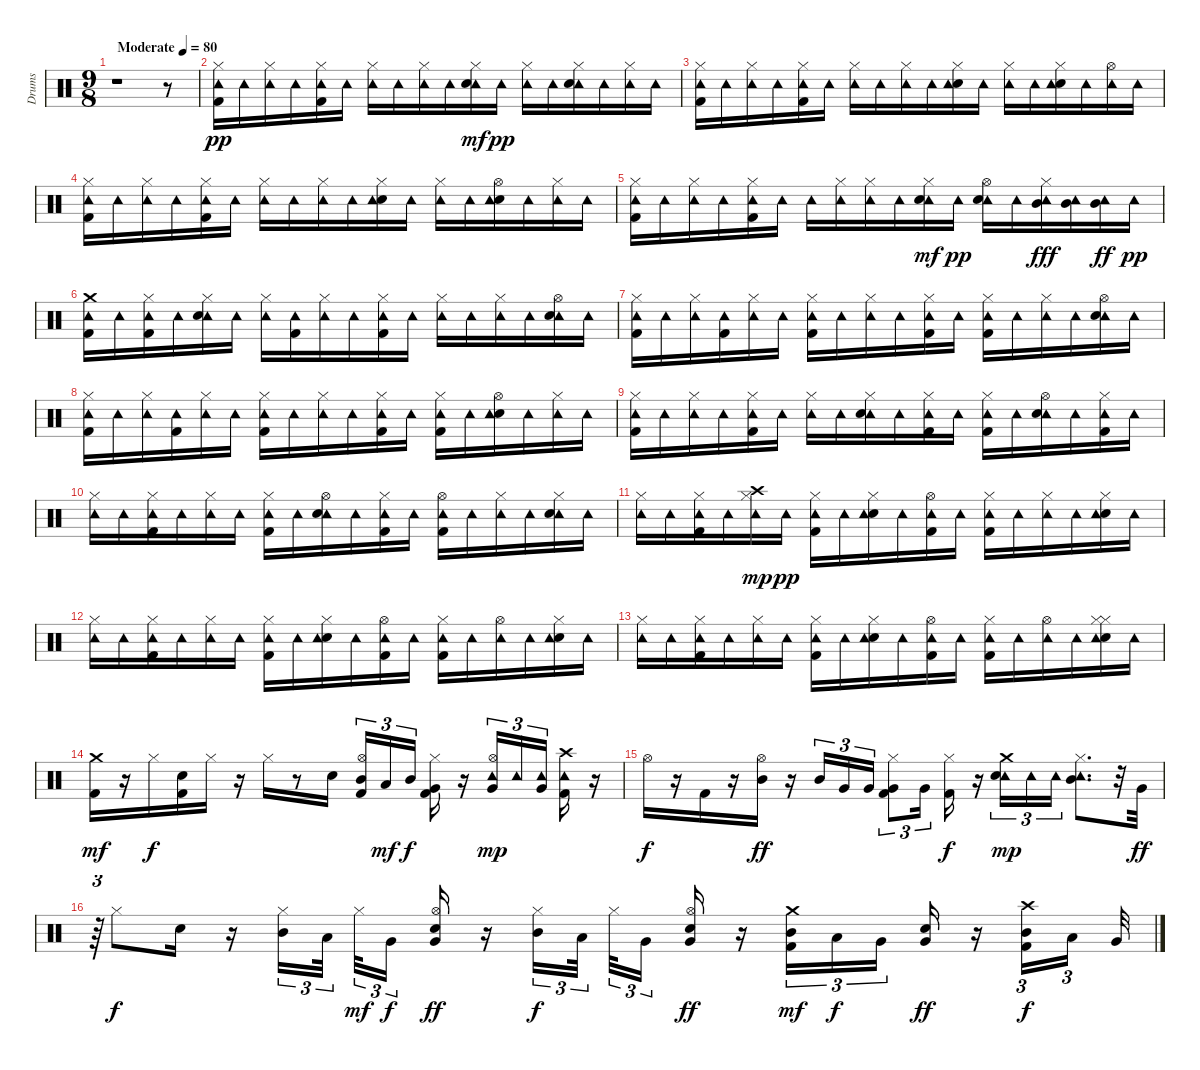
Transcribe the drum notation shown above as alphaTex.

\track ("Drums" "Drums") {instrument percussion}
\staff {score}
\articulation defaults
\ts (9 8)
\tempo (80 "Moderate")
\clef neutral
\ks c
r.1{dy pp} r.8 |
("Hi-Hat (closed)" "Kick (hit) 2" "Tambourine (hit)").16 "Tambourine (hit)".16 ("Hi-Hat (closed)" "Tambourine (hit)").16 "Tambourine (hit)".16 ("Hi-Hat (closed)" "Kick (hit) 2" "Tambourine (hit)").16 "Tambourine (hit)".16 ("Hi-Hat (closed)" "Tambourine (hit)").16 "Tambourine (hit)".16 ("Hi-Hat (closed)" "Tambourine (hit)").16 "Tambourine (hit)".16 ("Hi-Hat (closed)" "Tambourine (hit)" "Electric Snare (hit)").16{dy mf} "Tambourine (hit)".16{dy pp} ("Hi-Hat (closed)" "Tambourine (hit)").16 "Tambourine (hit)".16 ("Hi-Hat (closed)" "Tambourine (hit)" "Electric Snare (hit)").16 "Tambourine (hit)".16 ("Hi-Hat (closed)" "Tambourine (hit)").16 "Tambourine (hit)".16 |
("Hi-Hat (closed)" "Kick (hit) 2" "Tambourine (hit)").16 "Tambourine (hit)".16 ("Hi-Hat (closed)" "Tambourine (hit)").16 "Tambourine (hit)".16 ("Hi-Hat (closed)" "Kick (hit) 2" "Tambourine (hit)").16 "Tambourine (hit)".16 ("Hi-Hat (closed)" "Tambourine (hit)").16 "Tambourine (hit)".16 ("Hi-Hat (closed)" "Tambourine (hit)").16 "Tambourine (hit)".16 ("Hi-Hat (closed)" "Electric Snare (hit)" "Tambourine (hit)").16 "Tambourine (hit)".16 ("Hi-Hat (closed)" "Tambourine (hit)").16 "Tambourine (hit)".16 ("Hi-Hat (closed)" "Electric Snare (hit)" "Tambourine (hit)").16 "Tambourine (hit)".16 ("Hi-Hat (open)" "Tambourine (hit)").16 "Tambourine (hit)".16 |
("Hi-Hat (closed)" "Kick (hit) 2" "Tambourine (hit)").16 "Tambourine (hit)".16 ("Hi-Hat (closed)" "Tambourine (hit)").16 "Tambourine (hit)".16 ("Hi-Hat (closed)" "Kick (hit) 2" "Tambourine (hit)").16 "Tambourine (hit)".16 ("Hi-Hat (closed)" "Tambourine (hit)").16 "Tambourine (hit)".16 ("Hi-Hat (closed)" "Tambourine (hit)").16 "Tambourine (hit)".16 ("Hi-Hat (closed)" "Electric Snare (hit)" "Tambourine (hit)").16 "Tambourine (hit)".16 ("Hi-Hat (closed)" "Tambourine (hit)").16 "Tambourine (hit)".16 ("Hi-Hat (open)" "Electric Snare (hit)" "Tambourine (hit)").16 "Tambourine (hit)".16 ("Hi-Hat (closed)" "Tambourine (hit)").16 "Tambourine (hit)".16 |
("Hi-Hat (closed)" "Kick (hit) 2" "Tambourine (hit)").16 "Tambourine (hit)".16 ("Hi-Hat (closed)" "Tambourine (hit)").16 "Tambourine (hit)".16 ("Kick (hit) 2" "Hi-Hat (closed)" "Tambourine (hit)").16 "Tambourine (hit)".16 "Tambourine (hit)".16 ("Hi-Hat (closed)" "Tambourine (hit)").16 ("Hi-Hat (closed)" "Tambourine (hit)").16 "Tambourine (hit)".16 ("Hi-Hat (closed)" "Tambourine (hit)" "Electric Snare (hit)").16{dy mf} "Tambourine (hit)".16{dy pp} ("Hi-Hat (open)" "Tambourine (hit)" "Electric Snare (hit)").16 "Tambourine (hit)".16 ("Hi-Hat (closed)" "Tambourine (hit)" "Mid Tom (hit)").16{dy fff} ("Tambourine (hit)" "Mid Tom (hit)").16 ("Tambourine (hit)" "Mid Tom (hit)").16{dy ff} "Tambourine (hit)".16{dy pp} |
("Tambourine (hit)" "Kick (hit) 2" "Crash medium (hit)").16 "Tambourine (hit)".16 ("Tambourine (hit)" "Kick (hit) 2" "Hi-Hat (closed)").16 "Tambourine (hit)".16 ("Tambourine (hit)" "Hi-Hat (closed)" "Electric Snare (hit)").16 "Tambourine (hit)".16 ("Tambourine (hit)" "Hi-Hat (closed)").16 ("Tambourine (hit)" "Kick (hit) 2").16 ("Tambourine (hit)" "Hi-Hat (closed)").16 "Tambourine (hit)".16 ("Tambourine (hit)" "Kick (hit) 2" "Hi-Hat (closed)").16 "Tambourine (hit)".16 ("Tambourine (hit)" "Hi-Hat (closed)").16 "Tambourine (hit)".16 ("Tambourine (hit)" "Hi-Hat (closed)").16 "Tambourine (hit)".16 ("Tambourine (hit)" "Hi-Hat (open)" "Electric Snare (hit)").16 "Tambourine (hit)".16 |
("Kick (hit) 2" "Tambourine (hit)" "Hi-Hat (closed)").16 "Tambourine (hit)".16 ("Tambourine (hit)" "Hi-Hat (closed)").16 ("Kick (hit) 2" "Tambourine (hit)").16 ("Tambourine (hit)" "Hi-Hat (closed)").16 "Tambourine (hit)".16 ("Kick (hit) 2" "Tambourine (hit)" "Hi-Hat (closed)").16 "Tambourine (hit)".16 ("Tambourine (hit)" "Hi-Hat (closed)").16 "Tambourine (hit)".16 ("Kick (hit) 2" "Tambourine (hit)" "Hi-Hat (closed)").16 "Tambourine (hit)".16 ("Kick (hit) 2" "Tambourine (hit)" "Hi-Hat (closed)").16 "Tambourine (hit)".16 ("Tambourine (hit)" "Hi-Hat (closed)").16 "Tambourine (hit)".16 ("Tambourine (hit)" "Hi-Hat (open)" "Electric Snare (hit)").16 "Tambourine (hit)".16 |
("Hi-Hat (closed)" "Kick (hit) 2" "Tambourine (hit)").16 "Tambourine (hit)".16 ("Hi-Hat (closed)" "Tambourine (hit)").16 ("Kick (hit) 2" "Tambourine (hit)").16 ("Hi-Hat (closed)" "Tambourine (hit)").16 "Tambourine (hit)".16 ("Hi-Hat (closed)" "Kick (hit) 2" "Tambourine (hit)").16 "Tambourine (hit)".16 ("Hi-Hat (closed)" "Tambourine (hit)").16 "Tambourine (hit)".16 ("Hi-Hat (closed)" "Kick (hit) 2" "Tambourine (hit)").16 "Tambourine (hit)".16 ("Hi-Hat (closed)" "Kick (hit) 2" "Tambourine (hit)").16 "Tambourine (hit)".16 ("Hi-Hat (open)" "Electric Snare (hit)" "Tambourine (hit)").16 "Tambourine (hit)".16 ("Hi-Hat (closed)" "Tambourine (hit)").16 "Tambourine (hit)".16 |
("Hi-Hat (closed)" "Kick (hit) 2" "Tambourine (hit)").16 "Tambourine (hit)".16 ("Hi-Hat (closed)" "Tambourine (hit)").16 "Tambourine (hit)".16 ("Hi-Hat (closed)" "Tambourine (hit)" "Kick (hit) 2").16 "Tambourine (hit)".16 ("Hi-Hat (closed)" "Tambourine (hit)").16 "Tambourine (hit)".16 ("Hi-Hat (closed)" "Tambourine (hit)" "Electric Snare (hit)").16 "Tambourine (hit)".16 ("Hi-Hat (closed)" "Tambourine (hit)" "Kick (hit) 2").16 "Tambourine (hit)".16 ("Hi-Hat (closed)" "Tambourine (hit)" "Kick (hit) 2").16 "Tambourine (hit)".16 ("Hi-Hat (open)" "Tambourine (hit)" "Electric Snare (hit)").16 "Tambourine (hit)".16 ("Hi-Hat (closed)" "Tambourine (hit)" "Kick (hit) 2").16 "Tambourine (hit)".16 |
("Hi-Hat (closed)" "Tambourine (hit)").16 "Tambourine (hit)".16 ("Hi-Hat (closed)" "Tambourine (hit)" "Kick (hit) 2").16 "Tambourine (hit)".16 ("Hi-Hat (closed)" "Tambourine (hit)").16 "Tambourine (hit)".16 ("Hi-Hat (closed)" "Tambourine (hit)" "Kick (hit) 2").16 "Tambourine (hit)".16 ("Hi-Hat (open)" "Tambourine (hit)" "Electric Snare (hit)").16 "Tambourine (hit)".16 ("Hi-Hat (closed)" "Tambourine (hit)" "Kick (hit) 2").16 "Tambourine (hit)".16 ("Hi-Hat (open)" "Tambourine (hit)" "Kick (hit) 2").16 "Tambourine (hit)".16 ("Hi-Hat (closed)" "Tambourine (hit)").16 "Tambourine (hit)".16 ("Hi-Hat (closed)" "Tambourine (hit)" "Electric Snare (hit)").16 "Tambourine (hit)".16 |
("Hi-Hat (closed)" "Tambourine (hit)").16 "Tambourine (hit)".16 ("Hi-Hat (closed)" "Kick (hit) 2" "Tambourine (hit)").16 "Tambourine (hit)".16 ("Hi-Hat (closed)" "Tambourine (hit)" "Crash high (hit)").16{dy mp} "Tambourine (hit)".16{dy pp} ("Hi-Hat (closed)" "Kick (hit) 2" "Tambourine (hit)").16 "Tambourine (hit)".16 ("Hi-Hat (closed)" "Electric Snare (hit)" "Tambourine (hit)").16 "Tambourine (hit)".16 ("Hi-Hat (open)" "Kick (hit) 2" "Tambourine (hit)").16 "Tambourine (hit)".16 ("Hi-Hat (closed)" "Kick (hit) 2" "Tambourine (hit)").16 "Tambourine (hit)".16 ("Hi-Hat (closed)" "Tambourine (hit)").16 "Tambourine (hit)".16 ("Hi-Hat (closed)" "Electric Snare (hit)" "Tambourine (hit)").16 "Tambourine (hit)".16 |
("Hi-Hat (closed)" "Tambourine (hit)").16 "Tambourine (hit)".16 ("Hi-Hat (closed)" "Kick (hit) 2" "Tambourine (hit)").16 "Tambourine (hit)".16 ("Hi-Hat (closed)" "Tambourine (hit)").16 "Tambourine (hit)".16 ("Hi-Hat (closed)" "Kick (hit) 2" "Tambourine (hit)").16 "Tambourine (hit)".16 ("Hi-Hat (closed)" "Electric Snare (hit)" "Tambourine (hit)").16 "Tambourine (hit)".16 ("Hi-Hat (open)" "Kick (hit) 2" "Tambourine (hit)").16 "Tambourine (hit)".16 ("Hi-Hat (closed)" "Kick (hit) 2" "Tambourine (hit)").16 "Tambourine (hit)".16 ("Hi-Hat (open)" "Tambourine (hit)").16 "Tambourine (hit)".16 ("Hi-Hat (closed)" "Electric Snare (hit)" "Tambourine (hit)").16 "Tambourine (hit)".16 |
("Hi-Hat (closed)" "Tambourine (hit)").16 "Tambourine (hit)".16 ("Hi-Hat (closed)" "Kick (hit) 2" "Tambourine (hit)").16 "Tambourine (hit)".16 ("Hi-Hat (closed)" "Tambourine (hit)").16 "Tambourine (hit)".16 ("Hi-Hat (closed)" "Kick (hit) 2" "Tambourine (hit)").16 "Tambourine (hit)".16 ("Hi-Hat (closed)" "Electric Snare (hit)" "Tambourine (hit)").16 "Tambourine (hit)".16 ("Hi-Hat (open)" "Kick (hit) 2" "Tambourine (hit)").16 "Tambourine (hit)".16 ("Hi-Hat (closed)" "Kick (hit) 2" "Tambourine (hit)").16 "Tambourine (hit)".16 ("Hi-Hat (open)" "Tambourine (hit)").16 "Tambourine (hit)".16 ("Hi-Hat (closed)" "Hi-Hat (closed)" "Electric Snare (hit)" "Tambourine (hit)").16 "Tambourine (hit)".16 |
("Crash medium (hit)" "Kick (hit) 2").16{dy mf} r.16 "Hi-Hat (closed)".16{dy f} ("Kick (hit) 2" "Electric Snare (hit)").16 "Hi-Hat (closed)".16 r.16 "Hi-Hat (closed)".16 r.8 "Electric Snare (hit)".16{beam splitsecondary} ("Kick (hit) 2" "Hi-Hat (open)" "Mid Tom (hit)").16{tu (3 2)} "Low Tom (hit)".16{tu (3 2) dy mf} "Mid Tom (hit)".16{tu (3 2) dy f} ("Kick (hit) 2" "Hi-Hat (closed)" "Very Low Tom (hit)").16 r.16 ("Hi-Hat (open)" "Very Low Tom (hit)" "Tambourine (hit)").16{tu (3 2) dy mp} "Tambourine (hit)".16{tu (3 2)} ("Very Low Tom (hit)" "Tambourine (hit)").16{tu (3 2) beam splitsecondary} ("Crash high (hit)" "Kick (hit) 2" "Tambourine (hit)").16 r.16 |
"Hi-Hat (open)".16{dy f} r.16 "Kick (hit) 2".16 r.16 ("Hi-Hat (open)" "Mid Tom (hit)").16{dy ff} r.16 "Mid Tom (hit)".16{tu (3 2)} "Very Low Tom (hit)".16{tu (3 2)} "Very Low Tom (hit)".16{tu (3 2)} ("Kick (hit) 2" "Hi-Hat (closed)" "Very Low Tom (hit)").8{tu (3 2)} "Very Low Tom (hit)".16{tu (3 2)} ("Kick (hit) 2" "Hi-Hat (closed)").16{dy f} r.16 ("Tambourine (hit)" "Electric Snare (hit)" "Crash medium (hit)").16{tu (3 2) dy mp} "Tambourine (hit)".16{tu (3 2)} "Tambourine (hit)".16{tu (3 2)} ("Tambourine (hit)" "Mid Tom (hit)" "Hi-Hat (closed)").8{d} r.32 "Very Low Tom (hit)".32{dy ff} |
r.64{tu (3 2)} "Hi-Hat (closed)".8{dy f} "Electric Snare (hit)".16 r.16 ("Mid Tom (hit)" "Hi-Hat (closed)").16{tu (3 2)} "Low Tom (hit)".32{tu (3 2) beam splitsecondary} "Hi-Hat (closed)".32{tu (3 2) dy mf} "Very Low Tom (hit)".16{tu (3 2) dy f} ("Very Low Tom (hit)" "Hi-Hat (open)" "Electric Snare (hit)").16{dy ff} r.16 ("Mid Tom (hit)" "Hi-Hat (closed)").16{tu (3 2) dy f} "Low Tom (hit)".32{tu (3 2) beam splitsecondary} "Hi-Hat (closed)".32{tu (3 2)} "Very Low Tom (hit)".16{tu (3 2) beam splitsecondary} ("Very Low Tom (hit)" "Hi-Hat (open)" "Electric Snare (hit)").16{dy ff} r.16 ("Mid Tom (hit)" "Kick (hit) 2" "Crash medium (hit)").16{tu (3 2) dy mf} "Low Tom (hit)".16{tu (3 2) dy f} "Very Low Tom (hit)".16{tu (3 2) beam splitsecondary} ("Very Low Tom (hit)" "Electric Snare (hit)").16{dy ff} r.16 ("Kick (hit) 2" "Crash high (hit)" "Mid Tom (hit)").16{tu (3 2) dy f} "Low Tom (hit)".16{tu (3 2) beam splitsecondary} "Very Low Tom (hit)".32
